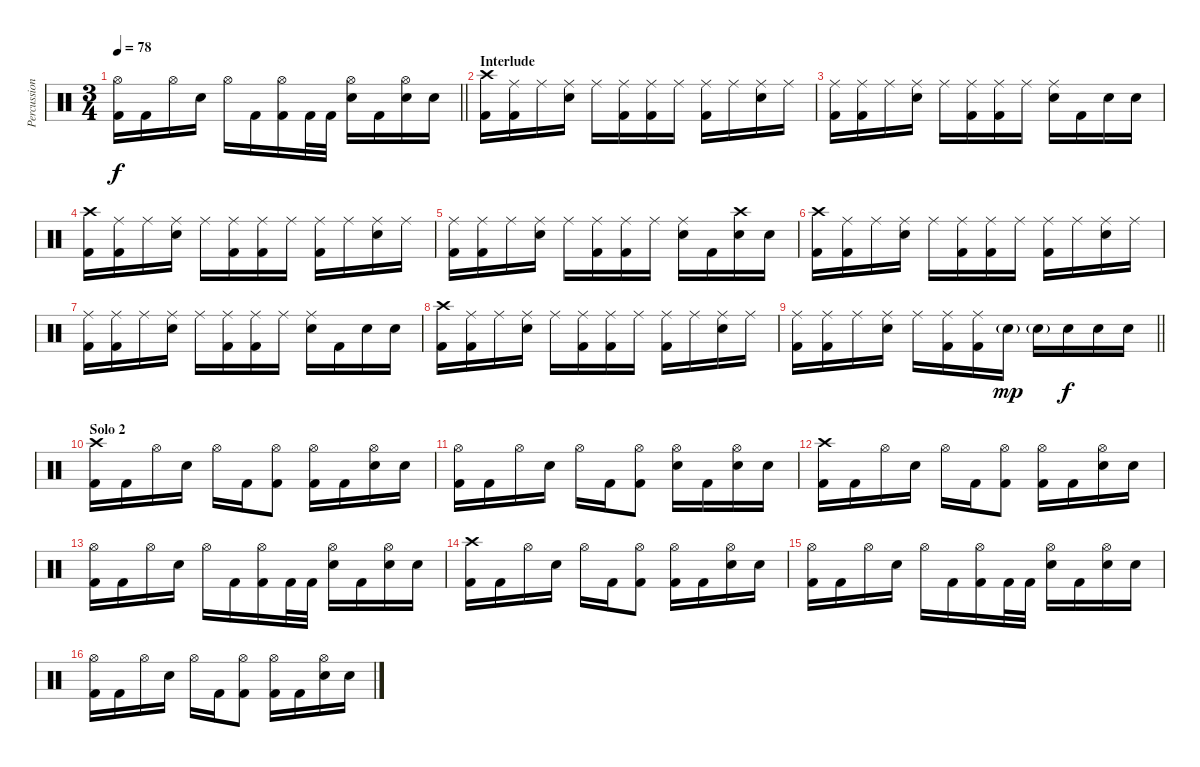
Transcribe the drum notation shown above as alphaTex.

\track ("Percussion" "Percussion") {instrument percussion}
\staff {score}
\articulation defaults
\ts (3 4)
\tempo 78
\clef neutral
\barLineRight lightlight
\ks c
("Hi-Hat (open)" "Kick (hit) 2").16{dy f} "Kick (hit) 2".16 "Hi-Hat (open)".16 "Electric Snare (hit)".16 "Hi-Hat (open)".16 "Kick (hit) 2".16 ("Hi-Hat (open)" "Kick (hit) 2").16 "Kick (hit) 2".32 "Kick (hit) 2".32 ("Hi-Hat (open)" "Electric Snare (hit)").16 "Kick (hit) 2".16 ("Hi-Hat (open)" "Electric Snare (hit)").16 "Electric Snare (hit)".16 |
\section ("" "Interlude")
("Crash high (hit)" "Kick (hit) 2").16 ("Ride (middle)" "Kick (hit) 2").16 "Ride (middle)".16 ("Ride (middle)" "Electric Snare (hit)").16 "Ride (middle)".16 ("Ride (middle)" "Kick (hit) 2").16 ("Ride (middle)" "Kick (hit) 2").16 "Ride (middle)".16 ("Ride (middle)" "Kick (hit) 2").16 "Ride (middle)".16 ("Ride (middle)" "Electric Snare (hit)").16 "Ride (middle)".16 |
("Ride (middle)" "Kick (hit) 2").16 ("Ride (middle)" "Kick (hit) 2").16 "Ride (middle)".16 ("Ride (middle)" "Electric Snare (hit)").16 "Ride (middle)".16 ("Ride (middle)" "Kick (hit) 2").16 ("Ride (middle)" "Kick (hit) 2").16 "Ride (middle)".16 ("Ride (middle)" "Electric Snare (hit)").16 "Kick (hit) 2".16 "Electric Snare (hit)".16 "Electric Snare (hit)".16 |
("Crash high (hit)" "Kick (hit) 2").16 ("Ride (middle)" "Kick (hit) 2").16 "Ride (middle)".16 ("Ride (middle)" "Electric Snare (hit)").16 "Ride (middle)".16 ("Ride (middle)" "Kick (hit) 2").16 ("Ride (middle)" "Kick (hit) 2").16 "Ride (middle)".16 ("Ride (middle)" "Kick (hit) 2").16 "Ride (middle)".16 ("Ride (middle)" "Electric Snare (hit)").16 "Ride (middle)".16 |
("Ride (middle)" "Kick (hit) 2").16 ("Ride (middle)" "Kick (hit) 2").16 "Ride (middle)".16 ("Ride (middle)" "Electric Snare (hit)").16 "Ride (middle)".16 ("Ride (middle)" "Kick (hit) 2").16 ("Ride (middle)" "Kick (hit) 2").16 "Ride (middle)".16 ("Ride (middle)" "Electric Snare (hit)").16 "Kick (hit) 2".16 ("Crash high (hit)" "Electric Snare (hit)").16 "Electric Snare (hit)".16 |
("Crash high (hit)" "Kick (hit) 2").16 ("Ride (middle)" "Kick (hit) 2").16 "Ride (middle)".16 ("Ride (middle)" "Electric Snare (hit)").16 "Ride (middle)".16 ("Ride (middle)" "Kick (hit) 2").16 ("Ride (middle)" "Kick (hit) 2").16 "Ride (middle)".16 ("Ride (middle)" "Kick (hit) 2").16 "Ride (middle)".16 ("Ride (middle)" "Electric Snare (hit)").16 "Ride (middle)".16 |
("Ride (middle)" "Kick (hit) 2").16 ("Ride (middle)" "Kick (hit) 2").16 "Ride (middle)".16 ("Ride (middle)" "Electric Snare (hit)").16 "Ride (middle)".16 ("Ride (middle)" "Kick (hit) 2").16 ("Ride (middle)" "Kick (hit) 2").16 "Ride (middle)".16 ("Ride (middle)" "Electric Snare (hit)").16 "Kick (hit) 2".16 "Electric Snare (hit)".16 "Electric Snare (hit)".16 |
("Crash high (hit)" "Kick (hit) 2").16 ("Ride (middle)" "Kick (hit) 2").16 "Ride (middle)".16 ("Ride (middle)" "Electric Snare (hit)").16 "Ride (middle)".16 ("Ride (middle)" "Kick (hit) 2").16 ("Ride (middle)" "Kick (hit) 2").16 "Ride (middle)".16 ("Ride (middle)" "Kick (hit) 2").16 "Ride (middle)".16 ("Ride (middle)" "Electric Snare (hit)").16 "Ride (middle)".16 |
\barLineRight lightlight
("Ride (middle)" "Kick (hit) 2").16 ("Ride (middle)" "Kick (hit) 2").16 "Ride (middle)".16 ("Ride (middle)" "Electric Snare (hit)").16 "Ride (middle)".16 ("Ride (middle)" "Kick (hit) 2").16 ("Ride (middle)" "Kick (hit) 2").16 "Electric Snare (hit)"{g}.16{dy mp} "Electric Snare (hit)"{g}.16 "Electric Snare (hit)".16{dy f} "Electric Snare (hit)".16 "Electric Snare (hit)".16 |
\section ("" "Solo 2")
("Crash high (hit)" "Kick (hit) 2").16 "Kick (hit) 2".16 "Hi-Hat (open)".16 "Electric Snare (hit)".16 "Hi-Hat (open)".16 "Kick (hit) 2".16 ("Hi-Hat (open)" "Kick (hit) 2").8 ("Hi-Hat (open)" "Kick (hit) 2").16 "Kick (hit) 2".16 ("Hi-Hat (open)" "Electric Snare (hit)").16 "Electric Snare (hit)".16 |
("Hi-Hat (open)" "Kick (hit) 2").16 "Kick (hit) 2".16 "Hi-Hat (open)".16 "Electric Snare (hit)".16 "Hi-Hat (open)".16 "Kick (hit) 2".16 ("Hi-Hat (open)" "Kick (hit) 2").8 ("Hi-Hat (open)" "Electric Snare (hit)").16 "Kick (hit) 2".16 ("Hi-Hat (open)" "Electric Snare (hit)").16 "Electric Snare (hit)".16 |
("Crash high (hit)" "Kick (hit) 2").16 "Kick (hit) 2".16 "Hi-Hat (open)".16 "Electric Snare (hit)".16 "Hi-Hat (open)".16 "Kick (hit) 2".16 ("Hi-Hat (open)" "Kick (hit) 2").8 ("Hi-Hat (open)" "Kick (hit) 2").16 "Kick (hit) 2".16 ("Hi-Hat (open)" "Electric Snare (hit)").16 "Electric Snare (hit)".16 |
("Hi-Hat (open)" "Kick (hit) 2").16 "Kick (hit) 2".16 "Hi-Hat (open)".16 "Electric Snare (hit)".16 "Hi-Hat (open)".16 "Kick (hit) 2".16 ("Hi-Hat (open)" "Kick (hit) 2").16 "Kick (hit) 2".32 "Kick (hit) 2".32 ("Hi-Hat (open)" "Electric Snare (hit)").16 "Kick (hit) 2".16 ("Hi-Hat (open)" "Electric Snare (hit)").16 "Electric Snare (hit)".16 |
("Crash high (hit)" "Kick (hit) 2").16 "Kick (hit) 2".16 "Hi-Hat (open)".16 "Electric Snare (hit)".16 "Hi-Hat (open)".16 "Kick (hit) 2".16 ("Hi-Hat (open)" "Kick (hit) 2").8 ("Hi-Hat (open)" "Kick (hit) 2").16 "Kick (hit) 2".16 ("Hi-Hat (open)" "Electric Snare (hit)").16 "Electric Snare (hit)".16 |
("Hi-Hat (open)" "Kick (hit) 2").16 "Kick (hit) 2".16 "Hi-Hat (open)".16 "Electric Snare (hit)".16 "Hi-Hat (open)".16 "Kick (hit) 2".16 ("Hi-Hat (open)" "Kick (hit) 2").16 "Kick (hit) 2".32 "Kick (hit) 2".32 ("Hi-Hat (open)" "Electric Snare (hit)").16 "Kick (hit) 2".16 ("Hi-Hat (open)" "Electric Snare (hit)").16 "Electric Snare (hit)".16 |
("Hi-Hat (open)" "Kick (hit) 2").16 "Kick (hit) 2".16 "Hi-Hat (open)".16 "Electric Snare (hit)".16 "Hi-Hat (open)".16 "Kick (hit) 2".16 ("Hi-Hat (open)" "Kick (hit) 2").8 ("Hi-Hat (open)" "Kick (hit) 2").16 "Kick (hit) 2".16 ("Hi-Hat (open)" "Electric Snare (hit)").16 "Electric Snare (hit)".16
